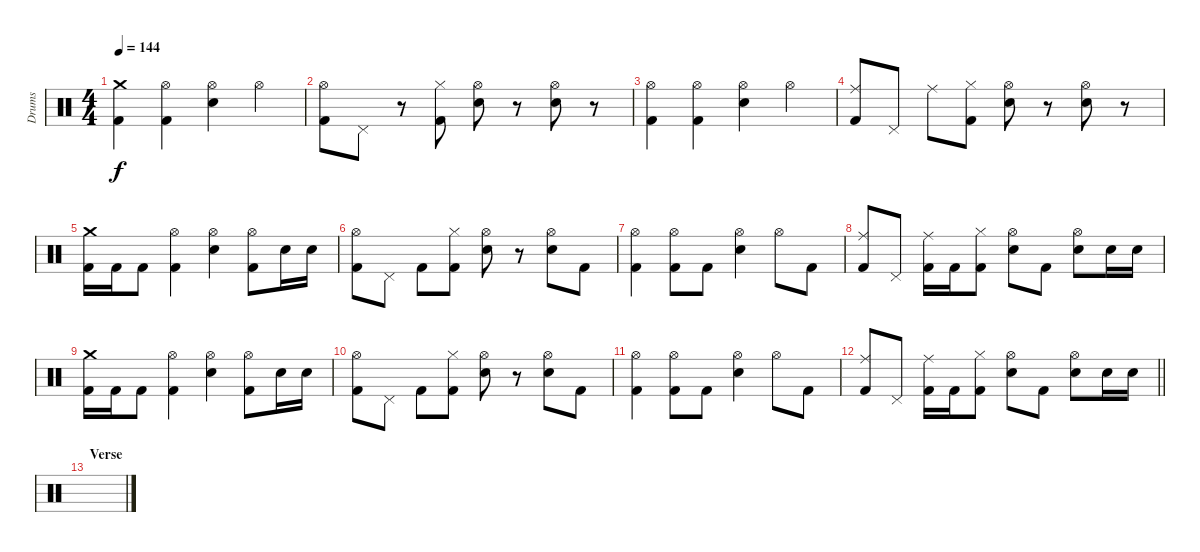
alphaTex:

\track ("Drums" "Drums") {instrument percussion}
\staff {score}
\articulation defaults
\ts (4 4)
\tempo 144
\clef neutral
\ks c
("Crash medium (hit)" "Kick (hit) 2").4{dy f} ("Hi-Hat (open)" "Kick (hit) 2").4 ("Hi-Hat (open)" "Electric Snare (hit)").4 "Hi-Hat (open)".4 |
("Hi-Hat (open)" "Kick (hit) 2").8 "Pedal Hi-Hat (hit)".8 r.8 ("Hi-Hat (closed)" "Kick (hit) 2").8 ("Hi-Hat (open)" "Electric Snare (hit)").8 r.8 ("Hi-Hat (open)" "Electric Snare (hit)").8 r.8 |
("Hi-Hat (open)" "Kick (hit) 2").4 ("Hi-Hat (open)" "Kick (hit) 2").4 ("Hi-Hat (open)" "Electric Snare (hit)").4 "Hi-Hat (open)".4 |
("Ride (middle)" "Kick (hit) 2").8 "Pedal Hi-Hat (hit)".8 "Ride (middle)".8 ("Hi-Hat (closed)" "Kick (hit) 2").8 ("Hi-Hat (open)" "Electric Snare (hit)").8 r.8 ("Hi-Hat (open)" "Electric Snare (hit)").8 r.8 |
("Crash medium (hit)" "Kick (hit) 2").16 "Kick (hit) 2".16 "Kick (hit) 2".8 ("Hi-Hat (open)" "Kick (hit) 2").4 ("Hi-Hat (open)" "Electric Snare (hit)").4 ("Hi-Hat (open)" "Kick (hit) 2").8 "Electric Snare (hit)".16 "Electric Snare (hit)".16 |
("Hi-Hat (open)" "Kick (hit) 2").8 "Pedal Hi-Hat (hit)".8 "Kick (hit) 2".8 ("Hi-Hat (closed)" "Kick (hit) 2").8 ("Hi-Hat (open)" "Electric Snare (hit)").8 r.8 ("Hi-Hat (open)" "Electric Snare (hit)").8 "Kick (hit) 2".8 |
("Hi-Hat (open)" "Kick (hit) 2").4 ("Hi-Hat (open)" "Kick (hit) 2").8 "Kick (hit) 2".8 ("Hi-Hat (open)" "Electric Snare (hit)").4 "Hi-Hat (open)".8 "Kick (hit) 2".8 |
("Ride (middle)" "Kick (hit) 2").8 "Pedal Hi-Hat (hit)".8 ("Ride (middle)" "Kick (hit) 2").16 "Kick (hit) 2".16 ("Hi-Hat (closed)" "Kick (hit) 2").8 ("Hi-Hat (open)" "Electric Snare (hit)").8 "Kick (hit) 2".8 ("Hi-Hat (open)" "Electric Snare (hit)").8 "Electric Snare (hit)".16 "Electric Snare (hit)".16 |
("Crash medium (hit)" "Kick (hit) 2").16 "Kick (hit) 2".16 "Kick (hit) 2".8 ("Hi-Hat (open)" "Kick (hit) 2").4 ("Hi-Hat (open)" "Electric Snare (hit)").4 ("Hi-Hat (open)" "Kick (hit) 2").8 "Electric Snare (hit)".16 "Electric Snare (hit)".16 |
("Hi-Hat (open)" "Kick (hit) 2").8 "Pedal Hi-Hat (hit)".8 "Kick (hit) 2".8 ("Hi-Hat (closed)" "Kick (hit) 2").8 ("Hi-Hat (open)" "Electric Snare (hit)").8 r.8 ("Hi-Hat (open)" "Electric Snare (hit)").8 "Kick (hit) 2".8 |
("Hi-Hat (open)" "Kick (hit) 2").4 ("Hi-Hat (open)" "Kick (hit) 2").8 "Kick (hit) 2".8 ("Hi-Hat (open)" "Electric Snare (hit)").4 "Hi-Hat (open)".8 "Kick (hit) 2".8 |
\barLineRight lightlight
("Ride (middle)" "Kick (hit) 2").8 "Pedal Hi-Hat (hit)".8 ("Ride (middle)" "Kick (hit) 2").16 "Kick (hit) 2".16 ("Hi-Hat (closed)" "Kick (hit) 2").8 ("Hi-Hat (open)" "Electric Snare (hit)").8 "Kick (hit) 2".8 ("Hi-Hat (open)" "Electric Snare (hit)").8 "Electric Snare (hit)".16 "Electric Snare (hit)".16 |
\section ("" "Verse")
